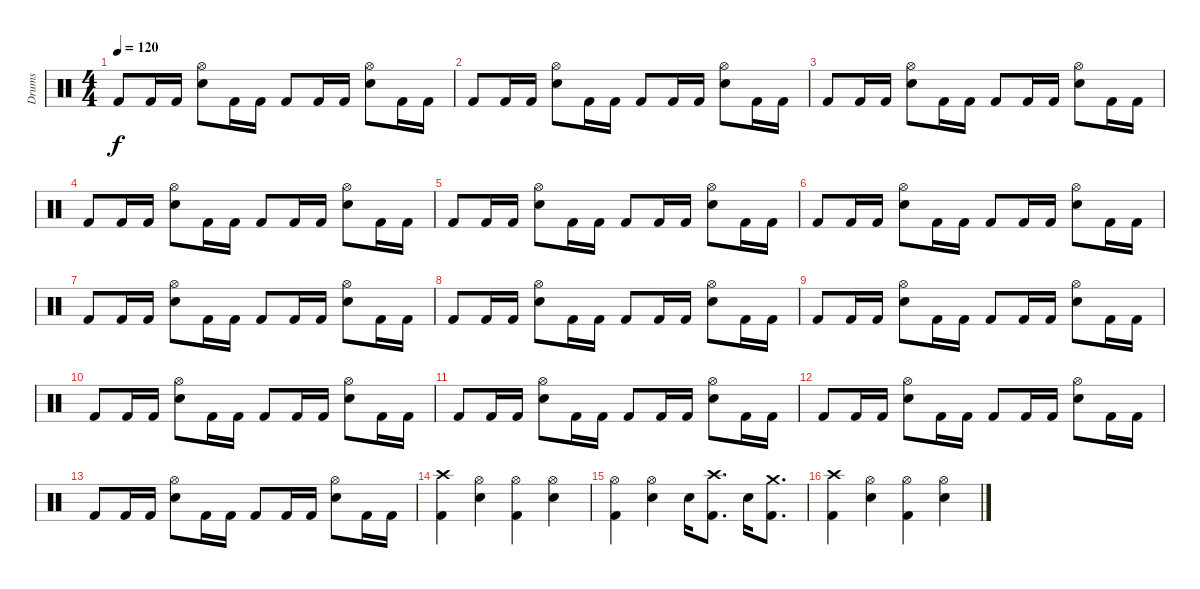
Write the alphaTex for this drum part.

\track ("Drums" "Drums") {instrument percussion}
\staff {score}
\articulation defaults
\ts (4 4)
\tempo 120
\clef neutral
\ks c "Kick (hit) 2".8{dy f} "Kick (hit) 2".16 "Kick (hit) 2".16
("Snare (hit) 2" "Hi-Hat (open)").8 "Kick (hit) 2".16 "Kick (hit) 2".16 "Kick (hit) 2".8 "Kick (hit) 2".16 "Kick (hit) 2".16 ("Snare (hit) 2" "Hi-Hat (open)").8 "Kick (hit) 2".16 "Kick (hit) 2".16 |
"Kick (hit) 2".8 "Kick (hit) 2".16 "Kick (hit) 2".16 ("Snare (hit) 2" "Hi-Hat (open)").8 "Kick (hit) 2".16 "Kick (hit) 2".16 "Kick (hit) 2".8 "Kick (hit) 2".16 "Kick (hit) 2".16 ("Snare (hit) 2" "Hi-Hat (open)").8 "Kick (hit) 2".16 "Kick (hit) 2".16 |
"Kick (hit) 2".8 "Kick (hit) 2".16 "Kick (hit) 2".16 ("Snare (hit) 2" "Hi-Hat (open)").8 "Kick (hit) 2".16 "Kick (hit) 2".16 "Kick (hit) 2".8 "Kick (hit) 2".16 "Kick (hit) 2".16 ("Snare (hit) 2" "Hi-Hat (open)").8 "Kick (hit) 2".16 "Kick (hit) 2".16 |
"Kick (hit) 2".8 "Kick (hit) 2".16 "Kick (hit) 2".16 ("Snare (hit) 2" "Hi-Hat (open)").8 "Kick (hit) 2".16 "Kick (hit) 2".16 "Kick (hit) 2".8 "Kick (hit) 2".16 "Kick (hit) 2".16 ("Snare (hit) 2" "Hi-Hat (open)").8 "Kick (hit) 2".16 "Kick (hit) 2".16 |
"Kick (hit) 2".8 "Kick (hit) 2".16 "Kick (hit) 2".16 ("Snare (hit) 2" "Hi-Hat (open)").8 "Kick (hit) 2".16 "Kick (hit) 2".16 "Kick (hit) 2".8 "Kick (hit) 2".16 "Kick (hit) 2".16 ("Snare (hit) 2" "Hi-Hat (open)").8 "Kick (hit) 2".16 "Kick (hit) 2".16 |
"Kick (hit) 2".8 "Kick (hit) 2".16 "Kick (hit) 2".16 ("Snare (hit) 2" "Hi-Hat (open)").8 "Kick (hit) 2".16 "Kick (hit) 2".16 "Kick (hit) 2".8 "Kick (hit) 2".16 "Kick (hit) 2".16 ("Snare (hit) 2" "Hi-Hat (open)").8 "Kick (hit) 2".16 "Kick (hit) 2".16 |
"Kick (hit) 2".8 "Kick (hit) 2".16 "Kick (hit) 2".16 ("Snare (hit) 2" "Hi-Hat (open)").8 "Kick (hit) 2".16 "Kick (hit) 2".16 "Kick (hit) 2".8 "Kick (hit) 2".16 "Kick (hit) 2".16 ("Snare (hit) 2" "Hi-Hat (open)").8 "Kick (hit) 2".16 "Kick (hit) 2".16 |
"Kick (hit) 2".8 "Kick (hit) 2".16 "Kick (hit) 2".16 ("Snare (hit) 2" "Hi-Hat (open)").8 "Kick (hit) 2".16 "Kick (hit) 2".16 "Kick (hit) 2".8 "Kick (hit) 2".16 "Kick (hit) 2".16 ("Snare (hit) 2" "Hi-Hat (open)").8 "Kick (hit) 2".16 "Kick (hit) 2".16 |
"Kick (hit) 2".8 "Kick (hit) 2".16 "Kick (hit) 2".16 ("Snare (hit) 2" "Hi-Hat (open)").8 "Kick (hit) 2".16 "Kick (hit) 2".16 "Kick (hit) 2".8 "Kick (hit) 2".16 "Kick (hit) 2".16 ("Snare (hit) 2" "Hi-Hat (open)").8 "Kick (hit) 2".16 "Kick (hit) 2".16 |
"Kick (hit) 2".8 "Kick (hit) 2".16 "Kick (hit) 2".16 ("Snare (hit) 2" "Hi-Hat (open)").8 "Kick (hit) 2".16 "Kick (hit) 2".16 "Kick (hit) 2".8 "Kick (hit) 2".16 "Kick (hit) 2".16 ("Snare (hit) 2" "Hi-Hat (open)").8 "Kick (hit) 2".16 "Kick (hit) 2".16 |
"Kick (hit) 2".8 "Kick (hit) 2".16 "Kick (hit) 2".16 ("Snare (hit) 2" "Hi-Hat (open)").8 "Kick (hit) 2".16 "Kick (hit) 2".16 "Kick (hit) 2".8 "Kick (hit) 2".16 "Kick (hit) 2".16 ("Snare (hit) 2" "Hi-Hat (open)").8 "Kick (hit) 2".16 "Kick (hit) 2".16 |
"Kick (hit) 2".8 "Kick (hit) 2".16 "Kick (hit) 2".16 ("Snare (hit) 2" "Hi-Hat (open)").8 "Kick (hit) 2".16 "Kick (hit) 2".16 "Kick (hit) 2".8 "Kick (hit) 2".16 "Kick (hit) 2".16 ("Snare (hit) 2" "Hi-Hat (open)").8 "Kick (hit) 2".16 "Kick (hit) 2".16 |
"Kick (hit) 2".8 "Kick (hit) 2".16 "Kick (hit) 2".16 ("Snare (hit) 2" "Hi-Hat (open)").8 "Kick (hit) 2".16 "Kick (hit) 2".16 "Kick (hit) 2".8 "Kick (hit) 2".16 "Kick (hit) 2".16 ("Snare (hit) 2" "Hi-Hat (open)").8 "Kick (hit) 2".16 "Kick (hit) 2".16 |
("Kick (hit) 2" "Crash high (hit)").4 ("Snare (hit) 2" "Hi-Hat (open)").4 ("Kick (hit) 2" "Hi-Hat (open)").4 ("Snare (hit) 2" "Hi-Hat (open)").4 |
("Kick (hit) 2" "Hi-Hat (open)").4 ("Snare (hit) 2" "Hi-Hat (open)").4 "Snare (hit) 2".16 ("Kick (hit) 2" "Crash high (hit)").8{d} "Snare (hit) 2".16 ("Kick (hit) 2" "Crash medium (hit)").8{d} |
("Kick (hit) 2" "Crash high (hit)").4 ("Snare (hit) 2" "Hi-Hat (open)").4 ("Kick (hit) 2" "Hi-Hat (open)").4 ("Snare (hit) 2" "Hi-Hat (open)").4
